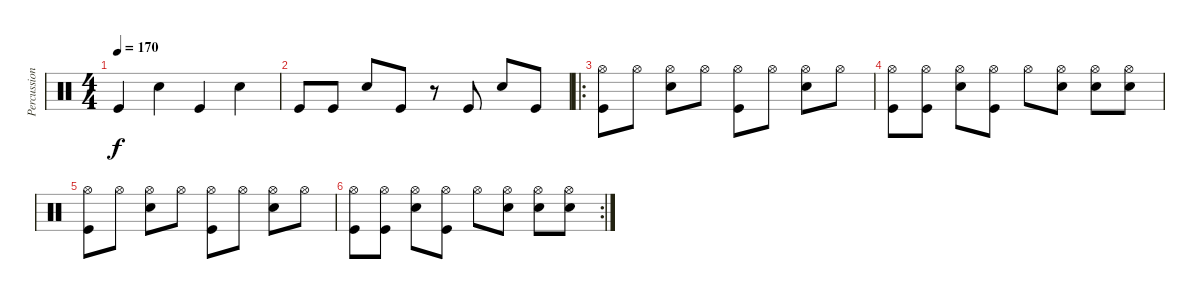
\track ("Percussion" "Percussion") {instrument percussion}
\staff {score}
\articulation defaults
\ts (4 4)
\tempo 170
\clef neutral
\ks c "Kick (hit)".4{dy f} "Snare (hit) 2".4 "Kick (hit)".4 "Snare (hit) 2".4
|
"Kick (hit)".8 "Kick (hit)".8 "Snare (hit) 2".8 "Kick (hit)".8 r.8 "Kick (hit)".8 "Snare (hit) 2".8 "Kick (hit)".8 |
\ro
("Hi-Hat (open)" "Kick (hit)").8 "Hi-Hat (open)".8 ("Hi-Hat (open)" "Snare (hit) 2").8 "Hi-Hat (open)".8 ("Hi-Hat (open)" "Kick (hit)").8 "Hi-Hat (open)".8 ("Hi-Hat (open)" "Snare (hit) 2").8 "Hi-Hat (open)".8 |
("Hi-Hat (open)" "Kick (hit)").8 ("Hi-Hat (open)" "Kick (hit)").8 ("Hi-Hat (open)" "Snare (hit) 2").8 ("Hi-Hat (open)" "Kick (hit)").8 "Hi-Hat (open)".8 ("Hi-Hat (open)" "Snare (hit) 2").8 ("Hi-Hat (open)" "Snare (hit) 2").8 ("Hi-Hat (open)" "Snare (hit) 2").8 |
("Hi-Hat (open)" "Kick (hit)").8 "Hi-Hat (open)".8 ("Hi-Hat (open)" "Snare (hit) 2").8 "Hi-Hat (open)".8 ("Hi-Hat (open)" "Kick (hit)").8 "Hi-Hat (open)".8 ("Hi-Hat (open)" "Snare (hit) 2").8 "Hi-Hat (open)".8 |
\rc 2
("Hi-Hat (open)" "Kick (hit)").8 ("Hi-Hat (open)" "Kick (hit)").8 ("Hi-Hat (open)" "Snare (hit) 2").8 ("Hi-Hat (open)" "Kick (hit)").8 "Hi-Hat (open)".8 ("Hi-Hat (open)" "Snare (hit) 2").8 ("Hi-Hat (open)" "Snare (hit) 2").8 ("Hi-Hat (open)" "Snare (hit) 2").8
